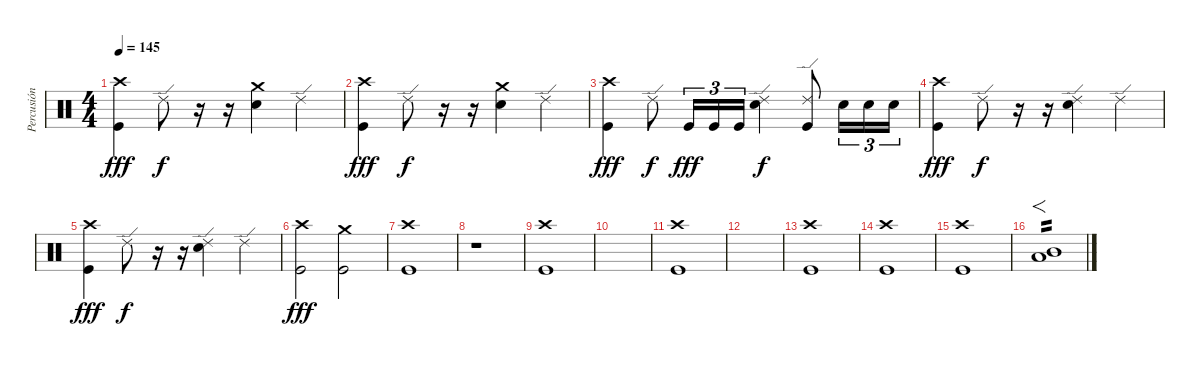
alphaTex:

\track ("Percusión" "Percusión") {instrument percussion}
\staff {score}
\articulation defaults
\ts (4 4)
\tempo 145
\clef neutral
\ks c
("Crash high (hit)" "Kick (hit)").4{dy fff} "Ride (edge) 2".8{dy f} r.16 r.16 ("Crash medium (hit)" "Electric Snare (hit)").4 "Ride (edge) 2".4 |
("Crash high (hit)" "Kick (hit)").4{dy fff} "Ride (edge) 2".8{dy f} r.16 r.16 ("Crash medium (hit)" "Electric Snare (hit)").4 "Ride (edge) 2".4 |
("Crash high (hit)" "Kick (hit)").4{dy fff} "Ride (edge) 2".8{dy f} "Kick (hit)".16{tu (3 2) dy fff} "Kick (hit)".16{tu (3 2)} "Kick (hit)".16{tu (3 2)} ("Ride (edge) 2" "Electric Snare (hit)").4{dy f} ("Ride (edge) 2" "Kick (hit)").8 "Electric Snare (hit)".16{tu (3 2)} "Electric Snare (hit)".16{tu (3 2)} "Electric Snare (hit)".16{tu (3 2)} |
("Crash high (hit)" "Kick (hit)").4{dy fff} "Ride (edge) 2".8{dy f} r.16 r.16 ("Ride (edge) 2" "Electric Snare (hit)").4 "Ride (edge) 2".4 |
("Crash high (hit)" "Kick (hit)").4{dy fff} "Ride (edge) 2".8{dy f} r.16 r.16 ("Ride (edge) 2" "Electric Snare (hit)").4 "Ride (edge) 2".4 |
("Crash high (hit)" "Kick (hit)").2{dy fff} ("Crash medium (hit)" "Kick (hit)").2 |
("Crash high (hit)" "Kick (hit)").1 |
r.1 |
("Crash high (hit)" "Kick (hit)").1 |
|
("Crash high (hit)" "Kick (hit)").1 |
|
("Crash high (hit)" "Kick (hit)").1 |
("Crash high (hit)" "Kick (hit)").1 |
("Crash high (hit)" "Kick (hit)").1 |
("Low Tom (hit)" "Mid Tom (hit)").1{f tp 2}
